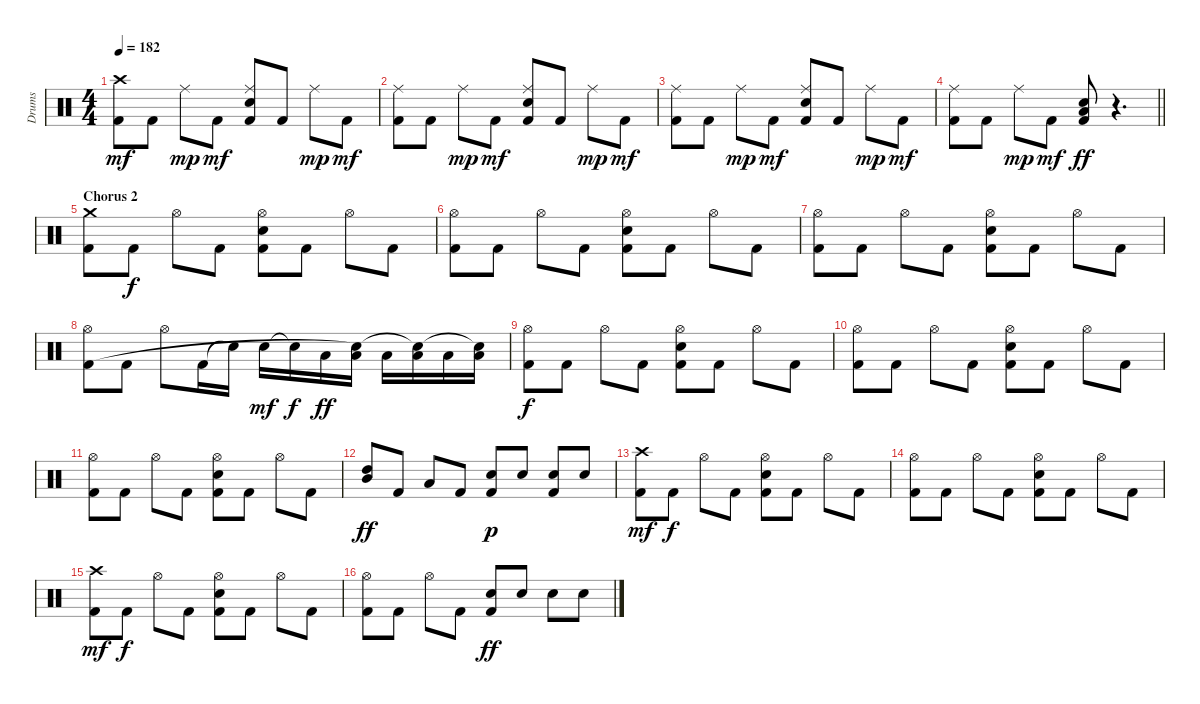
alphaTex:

\track ("Drums" "Drums") {instrument percussion}
\staff {score}
\articulation defaults
\ts (4 4)
\tempo 182
\clef neutral
\ks c
("Crash high (hit)" "Kick (hit) 2").8{dy mf} "Kick (hit) 2".8 "Ride (middle)".8{dy mp} "Kick (hit) 2".8{dy mf} ("Ride (middle)" "Snare (hit) 2" "Kick (hit) 2").8 "Kick (hit) 2".8 "Ride (middle)".8{dy mp} "Kick (hit) 2".8{dy mf} |
("Ride (middle)" "Kick (hit) 2").8 "Kick (hit) 2".8 "Ride (middle)".8{dy mp} "Kick (hit) 2".8{dy mf} ("Ride (middle)" "Snare (hit) 2" "Kick (hit) 2").8 "Kick (hit) 2".8 "Ride (middle)".8{dy mp} "Kick (hit) 2".8{dy mf} |
("Ride (middle)" "Kick (hit) 2").8 "Kick (hit) 2".8 "Ride (middle)".8{dy mp} "Kick (hit) 2".8{dy mf} ("Ride (middle)" "Snare (hit) 2" "Kick (hit) 2").8 "Kick (hit) 2".8 "Ride (middle)".8{dy mp} "Kick (hit) 2".8{dy mf} |
\barLineRight lightlight
("Ride (middle)" "Kick (hit) 2").8 "Kick (hit) 2".8 "Ride (middle)".8{dy mp} "Kick (hit) 2".8{dy mf} ("Snare (hit) 2" "Low Floor Tom (hit)" "Kick (hit) 2").8{dy ff} r.4{d} |
\section ("" "Chorus 2")
("Crash medium (hit)" "Kick (hit) 2").8 "Kick (hit) 2".8{dy f} "Hi-Hat (open)".8 "Kick (hit) 2".8 ("Hi-Hat (open)" "Snare (hit) 2" "Kick (hit) 2").8 "Kick (hit) 2".8 "Hi-Hat (open)".8 "Kick (hit) 2".8 |
("Hi-Hat (open)" "Kick (hit) 2").8 "Kick (hit) 2".8 "Hi-Hat (open)".8 "Kick (hit) 2".8 ("Hi-Hat (open)" "Snare (hit) 2" "Kick (hit) 2").8 "Kick (hit) 2".8 "Hi-Hat (open)".8 "Kick (hit) 2".8 |
("Hi-Hat (open)" "Kick (hit) 2").8 "Kick (hit) 2".8 "Hi-Hat (open)".8 "Kick (hit) 2".8 ("Hi-Hat (open)" "Snare (hit) 2" "Kick (hit) 2").8 "Kick (hit) 2".8 "Hi-Hat (open)".8 "Kick (hit) 2".8 |
("Hi-Hat (open)" "Kick (hit) 2").8 "Kick (hit) 2".8 "Hi-Hat (open)".8 "Kick (hit) 2".16 "Snare (hit)"{t}.16 "Snare (hit) 2".16{dy mf} "Snare (hit)"{t}.16{dy f} "Low Floor Tom (hit)".16{dy ff} ("Low Floor Tom (hit)" "Snare (hit)"{t}).16 "Low Floor Tom (hit)".16 ("Low Floor Tom (hit)" "Snare (hit)"{t}).16 "Low Floor Tom (hit)".16 ("Low Floor Tom (hit)" "Snare (hit)"{t}).16 |
("Hi-Hat (open)" "Kick (hit) 2").8{dy f} "Kick (hit) 2".8 "Hi-Hat (open)".8 "Kick (hit) 2".8 ("Hi-Hat (open)" "Snare (hit) 2" "Kick (hit) 2").8 "Kick (hit) 2".8 "Hi-Hat (open)".8 "Kick (hit) 2".8 |
("Hi-Hat (open)" "Kick (hit) 2").8 "Kick (hit) 2".8 "Hi-Hat (open)".8 "Kick (hit) 2".8 ("Hi-Hat (open)" "Snare (hit) 2" "Kick (hit) 2").8 "Kick (hit) 2".8 "Hi-Hat (open)".8 "Kick (hit) 2".8 |
("Hi-Hat (open)" "Kick (hit) 2").8 "Kick (hit) 2".8 "Hi-Hat (open)".8 "Kick (hit) 2".8 ("Hi-Hat (open)" "Snare (hit) 2" "Kick (hit) 2").8 "Kick (hit) 2".8 "Hi-Hat (open)".8 "Kick (hit) 2".8 |
("Mid Tom (hit)" "High Tom (hit)").8{dy ff} "Kick (hit) 2".8 "Low Floor Tom (hit)".8 "Kick (hit) 2".8 ("Snare (hit) 2" "Kick (hit) 2").8{dy p} "Snare (hit) 2".8 ("Snare (hit) 2" "Kick (hit) 2").8 "Snare (hit) 2".8 |
("Crash high (hit)" "Kick (hit) 2").8{dy mf} "Kick (hit) 2".8{dy f} "Hi-Hat (open)".8 "Kick (hit) 2".8 ("Hi-Hat (open)" "Snare (hit) 2" "Kick (hit) 2").8 "Kick (hit) 2".8 "Hi-Hat (open)".8 "Kick (hit) 2".8 |
("Hi-Hat (open)" "Kick (hit) 2").8 "Kick (hit) 2".8 "Hi-Hat (open)".8 "Kick (hit) 2".8 ("Hi-Hat (open)" "Snare (hit) 2" "Kick (hit) 2").8 "Kick (hit) 2".8 "Hi-Hat (open)".8 "Kick (hit) 2".8 |
("Crash high (hit)" "Kick (hit) 2").8{dy mf} "Kick (hit) 2".8{dy f} "Hi-Hat (open)".8 "Kick (hit) 2".8 ("Hi-Hat (open)" "Snare (hit) 2" "Kick (hit) 2").8 "Kick (hit) 2".8 "Hi-Hat (open)".8 "Kick (hit) 2".8 |
("Hi-Hat (open)" "Kick (hit) 2").8 "Kick (hit) 2".8 "Hi-Hat (open)".8 "Kick (hit) 2".8 ("Snare (hit) 2" "Kick (hit) 2").8{dy ff} "Snare (hit) 2".8 "Snare (hit) 2".8 "Snare (hit) 2".8
